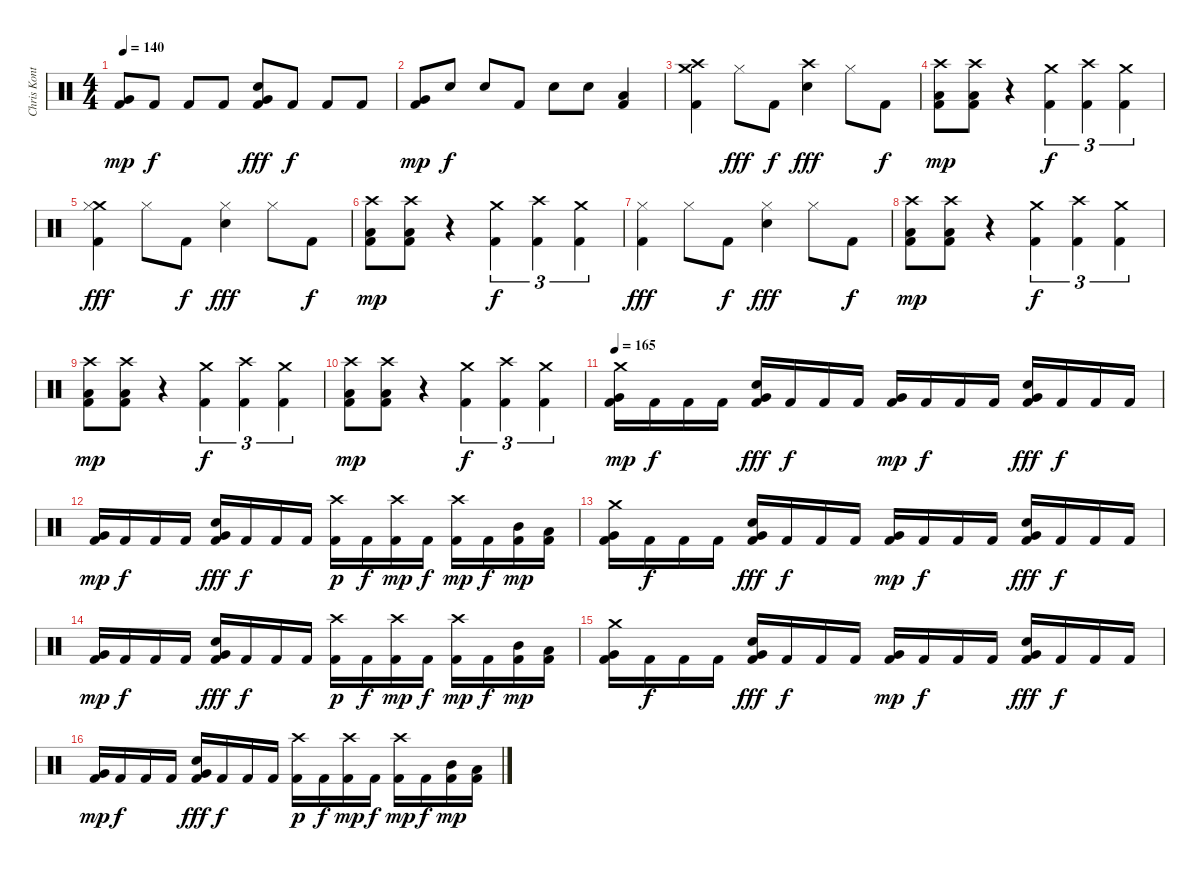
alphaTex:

\track ("Chris Kontos" "Chris Kont") {instrument percussion}
\staff {score}
\articulation defaults
\ts (4 4)
\tempo 140
\clef neutral
\ks c
("Very Low Tom (hit)" "Kick (hit) 2").8{dy mp} "Kick (hit) 2".8{dy f} "Kick (hit) 2".8 "Kick (hit) 2".8 ("Very Low Tom (hit)" "Electric Snare (hit)" "Kick (hit) 2").8{dy fff} "Kick (hit) 2".8{dy f} "Kick (hit) 2".8 "Kick (hit) 2".8 |
("Very Low Tom (hit)" "Kick (hit) 2").8{dy mp} "Electric Snare (hit)".8{dy f} "Electric Snare (hit)".8 "Kick (hit) 2".8 "Electric Snare (hit)".8 "Electric Snare (hit)".8 ("Low Tom (hit)" "Kick (hit) 2").4 |
("Crash medium (hit)" "Crash high (hit)" "Kick (hit) 2").4 "Hi-Hat (closed)".8{dy fff} "Kick (hit) 2".8{dy f} ("Crash high (hit)" "Electric Snare (hit)").4{dy fff} "Hi-Hat (closed)".8 "Kick (hit) 2".8{dy f} |
("Crash high (hit)" "Low Tom (hit)" "Kick (hit) 2").8{dy mp} ("Crash high (hit)" "Low Tom (hit)" "Kick (hit) 2").8 r.4 ("Crash medium (hit)" "Kick (hit) 2").4{tu (3 2) dy f} ("Crash high (hit)" "Kick (hit) 2").4{tu (3 2)} ("Crash medium (hit)" "Kick (hit) 2").4{tu (3 2)} |
("Crash medium (hit)" "Hi-Hat (closed)" "Kick (hit) 2").4{dy fff} "Hi-Hat (closed)".8 "Kick (hit) 2".8{dy f} ("Electric Snare (hit)" "Hi-Hat (closed)").4{dy fff} "Hi-Hat (closed)".8 "Kick (hit) 2".8{dy f} |
("Crash high (hit)" "Low Tom (hit)" "Kick (hit) 2").8{dy mp} ("Crash high (hit)" "Low Tom (hit)" "Kick (hit) 2").8 r.4 ("Crash medium (hit)" "Kick (hit) 2").4{tu (3 2) dy f} ("Crash high (hit)" "Kick (hit) 2").4{tu (3 2)} ("Crash medium (hit)" "Kick (hit) 2").4{tu (3 2)} |
("Hi-Hat (closed)" "Kick (hit) 2").4{dy fff} "Hi-Hat (closed)".8 "Kick (hit) 2".8{dy f} ("Electric Snare (hit)" "Hi-Hat (closed)").4{dy fff} "Hi-Hat (closed)".8 "Kick (hit) 2".8{dy f} |
("Crash high (hit)" "Low Tom (hit)" "Kick (hit) 2").8{dy mp} ("Crash high (hit)" "Low Tom (hit)" "Kick (hit) 2").8 r.4 ("Crash medium (hit)" "Kick (hit) 2").4{tu (3 2) dy f} ("Crash high (hit)" "Kick (hit) 2").4{tu (3 2)} ("Crash medium (hit)" "Kick (hit) 2").4{tu (3 2)} |
("Crash high (hit)" "Low Tom (hit)" "Kick (hit) 2").8{dy mp} ("Crash high (hit)" "Low Tom (hit)" "Kick (hit) 2").8 r.4 ("Crash medium (hit)" "Kick (hit) 2").4{tu (3 2) dy f} ("Crash high (hit)" "Kick (hit) 2").4{tu (3 2)} ("Crash medium (hit)" "Kick (hit) 2").4{tu (3 2)} |
("Crash high (hit)" "Low Tom (hit)" "Kick (hit) 2").8{dy mp} ("Crash high (hit)" "Low Tom (hit)" "Kick (hit) 2").8 r.4 ("Crash medium (hit)" "Kick (hit) 2").4{tu (3 2) dy f} ("Crash high (hit)" "Kick (hit) 2").4{tu (3 2)} ("Crash medium (hit)" "Kick (hit) 2").4{tu (3 2)} |
\tempo 165
("Crash medium (hit)" "Very Low Tom (hit)" "Kick (hit) 2").16{dy mp} "Kick (hit) 2".16{dy f} "Kick (hit) 2".16 "Kick (hit) 2".16 ("Very Low Tom (hit)" "Electric Snare (hit)" "Kick (hit) 2").16{dy fff} "Kick (hit) 2".16{dy f} "Kick (hit) 2".16 "Kick (hit) 2".16 ("Very Low Tom (hit)" "Kick (hit) 2").16{dy mp} "Kick (hit) 2".16{dy f} "Kick (hit) 2".16 "Kick (hit) 2".16 ("Very Low Tom (hit)" "Electric Snare (hit)" "Kick (hit) 2").16{dy fff} "Kick (hit) 2".16{dy f} "Kick (hit) 2".16 "Kick (hit) 2".16 |
("Very Low Tom (hit)" "Kick (hit) 2").16{dy mp} "Kick (hit) 2".16{dy f} "Kick (hit) 2".16 "Kick (hit) 2".16 ("Very Low Tom (hit)" "Electric Snare (hit)" "Kick (hit) 2").16{dy fff} "Kick (hit) 2".16{dy f} "Kick (hit) 2".16 "Kick (hit) 2".16 ("Crash high (hit)" "Kick (hit) 2").16{dy p} "Kick (hit) 2".16{dy f} ("Crash high (hit)" "Kick (hit) 2").16{dy mp} "Kick (hit) 2".16{dy f} ("Crash high (hit)" "Kick (hit) 2").16{dy mp} "Kick (hit) 2".16{dy f} ("Mid Tom (hit)" "Kick (hit) 2").16{dy mp} ("Low Tom (hit)" "Kick (hit) 2").16 |
("Crash medium (hit)" "Very Low Tom (hit)" "Kick (hit) 2").16 "Kick (hit) 2".16{dy f} "Kick (hit) 2".16 "Kick (hit) 2".16 ("Very Low Tom (hit)" "Electric Snare (hit)" "Kick (hit) 2").16{dy fff} "Kick (hit) 2".16{dy f} "Kick (hit) 2".16 "Kick (hit) 2".16 ("Very Low Tom (hit)" "Kick (hit) 2").16{dy mp} "Kick (hit) 2".16{dy f} "Kick (hit) 2".16 "Kick (hit) 2".16 ("Very Low Tom (hit)" "Electric Snare (hit)" "Kick (hit) 2").16{dy fff} "Kick (hit) 2".16{dy f} "Kick (hit) 2".16 "Kick (hit) 2".16 |
("Very Low Tom (hit)" "Kick (hit) 2").16{dy mp} "Kick (hit) 2".16{dy f} "Kick (hit) 2".16 "Kick (hit) 2".16 ("Very Low Tom (hit)" "Electric Snare (hit)" "Kick (hit) 2").16{dy fff} "Kick (hit) 2".16{dy f} "Kick (hit) 2".16 "Kick (hit) 2".16 ("Crash high (hit)" "Kick (hit) 2").16{dy p} "Kick (hit) 2".16{dy f} ("Crash high (hit)" "Kick (hit) 2").16{dy mp} "Kick (hit) 2".16{dy f} ("Crash high (hit)" "Kick (hit) 2").16{dy mp} "Kick (hit) 2".16{dy f} ("Mid Tom (hit)" "Kick (hit) 2").16{dy mp} ("Low Tom (hit)" "Kick (hit) 2").16 |
("Crash medium (hit)" "Very Low Tom (hit)" "Kick (hit) 2").16 "Kick (hit) 2".16{dy f} "Kick (hit) 2".16 "Kick (hit) 2".16 ("Very Low Tom (hit)" "Electric Snare (hit)" "Kick (hit) 2").16{dy fff} "Kick (hit) 2".16{dy f} "Kick (hit) 2".16 "Kick (hit) 2".16 ("Very Low Tom (hit)" "Kick (hit) 2").16{dy mp} "Kick (hit) 2".16{dy f} "Kick (hit) 2".16 "Kick (hit) 2".16 ("Very Low Tom (hit)" "Electric Snare (hit)" "Kick (hit) 2").16{dy fff} "Kick (hit) 2".16{dy f} "Kick (hit) 2".16 "Kick (hit) 2".16 |
("Very Low Tom (hit)" "Kick (hit) 2").16{dy mp} "Kick (hit) 2".16{dy f} "Kick (hit) 2".16 "Kick (hit) 2".16 ("Very Low Tom (hit)" "Electric Snare (hit)" "Kick (hit) 2").16{dy fff} "Kick (hit) 2".16{dy f} "Kick (hit) 2".16 "Kick (hit) 2".16 ("Crash high (hit)" "Kick (hit) 2").16{dy p} "Kick (hit) 2".16{dy f} ("Crash high (hit)" "Kick (hit) 2").16{dy mp} "Kick (hit) 2".16{dy f} ("Crash high (hit)" "Kick (hit) 2").16{dy mp} "Kick (hit) 2".16{dy f} ("Mid Tom (hit)" "Kick (hit) 2").16{dy mp} ("Low Tom (hit)" "Kick (hit) 2").16
